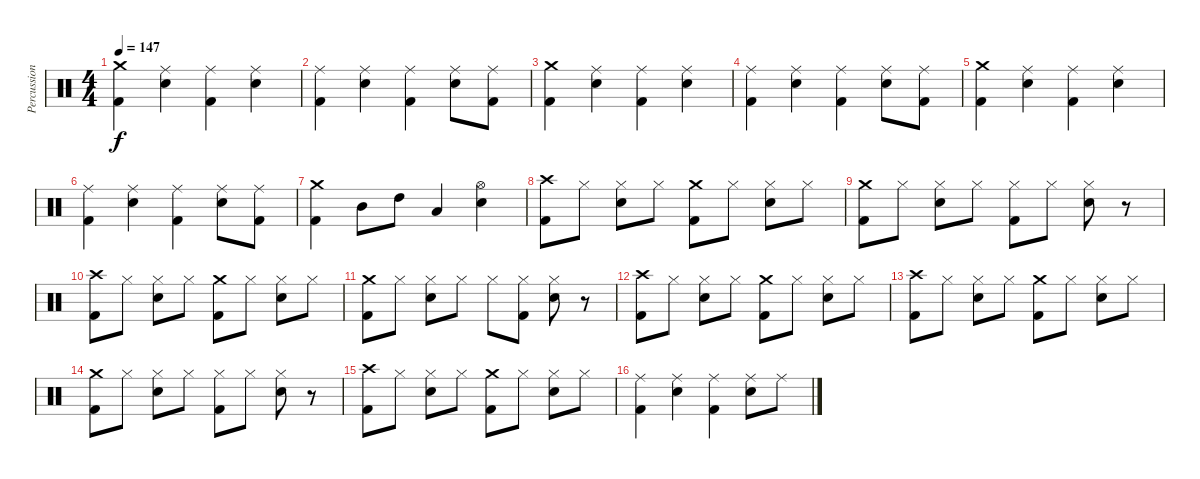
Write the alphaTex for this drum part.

\track ("Percussions" "Percussion") {instrument percussion}
\staff {score}
\articulation defaults
\ts (4 4)
\tempo 147
\clef neutral
\ks c
("Crash medium (hit)" "Kick (hit) 2").4{dy f} ("Ride (middle)" "Electric Snare (hit)").4 ("Ride (middle)" "Kick (hit) 2").4 ("Ride (middle)" "Electric Snare (hit)").4 |
("Ride (middle)" "Kick (hit) 2").4 ("Ride (middle)" "Electric Snare (hit)").4 ("Ride (middle)" "Kick (hit) 2").4 ("Ride (middle)" "Electric Snare (hit)").8 ("Ride (middle)" "Kick (hit) 2").8 |
("Crash medium (hit)" "Kick (hit) 2").4 ("Ride (middle)" "Electric Snare (hit)").4 ("Ride (middle)" "Kick (hit) 2").4 ("Ride (middle)" "Electric Snare (hit)").4 |
("Ride (middle)" "Kick (hit) 2").4 ("Ride (middle)" "Electric Snare (hit)").4 ("Ride (middle)" "Kick (hit) 2").4 ("Ride (middle)" "Electric Snare (hit)").8 ("Ride (middle)" "Kick (hit) 2").8 |
("Crash medium (hit)" "Kick (hit) 2").4 ("Ride (middle)" "Electric Snare (hit)").4 ("Ride (middle)" "Kick (hit) 2").4 ("Ride (middle)" "Electric Snare (hit)").4 |
("Ride (middle)" "Kick (hit) 2").4 ("Ride (middle)" "Electric Snare (hit)").4 ("Ride (middle)" "Kick (hit) 2").4 ("Ride (middle)" "Electric Snare (hit)").8 ("Ride (middle)" "Kick (hit) 2").8 |
("Crash medium (hit)" "Kick (hit) 2").4 "Mid Tom (hit)".8 "High Tom (hit)".8 "Low Tom (hit)".4 ("Hi-Hat (open)" "Electric Snare (hit)").4 |
("Crash high (hit)" "Kick (hit) 2").8 "Hi-Hat (closed)".8 ("Hi-Hat (closed)" "Electric Snare (hit)").8 "Hi-Hat (closed)".8 ("Crash medium (hit)" "Kick (hit) 2").8 "Hi-Hat (closed)".8 ("Hi-Hat (closed)" "Electric Snare (hit)").8 "Hi-Hat (closed)".8 |
("Crash medium (hit)" "Kick (hit) 2").8 "Hi-Hat (closed)".8 ("Hi-Hat (closed)" "Electric Snare (hit)").8 "Hi-Hat (closed)".8 ("Hi-Hat (closed)" "Kick (hit) 2").8 "Hi-Hat (closed)".8 ("Hi-Hat (closed)" "Electric Snare (hit)").8 r.8 |
("Crash high (hit)" "Kick (hit) 2").8 "Hi-Hat (closed)".8 ("Hi-Hat (closed)" "Electric Snare (hit)").8 "Hi-Hat (closed)".8 ("Crash medium (hit)" "Kick (hit) 2").8 "Hi-Hat (closed)".8 ("Hi-Hat (closed)" "Electric Snare (hit)").8 "Hi-Hat (closed)".8 |
("Crash medium (hit)" "Kick (hit) 2").8 "Hi-Hat (closed)".8 ("Hi-Hat (closed)" "Electric Snare (hit)").8 "Hi-Hat (closed)".8 "Hi-Hat (closed)".8 ("Hi-Hat (closed)" "Kick (hit) 2").8 ("Hi-Hat (closed)" "Electric Snare (hit)").8 r.8 |
("Crash high (hit)" "Kick (hit) 2").8 "Hi-Hat (closed)".8 ("Hi-Hat (closed)" "Electric Snare (hit)").8 "Hi-Hat (closed)".8 ("Crash medium (hit)" "Kick (hit) 2").8 "Hi-Hat (closed)".8 ("Hi-Hat (closed)" "Electric Snare (hit)").8 "Hi-Hat (closed)".8 |
("Crash high (hit)" "Kick (hit) 2").8 "Hi-Hat (closed)".8 ("Hi-Hat (closed)" "Electric Snare (hit)").8 "Hi-Hat (closed)".8 ("Crash medium (hit)" "Kick (hit) 2").8 "Hi-Hat (closed)".8 ("Hi-Hat (closed)" "Electric Snare (hit)").8 "Hi-Hat (closed)".8 |
("Crash medium (hit)" "Kick (hit) 2").8 "Hi-Hat (closed)".8 ("Hi-Hat (closed)" "Electric Snare (hit)").8 "Hi-Hat (closed)".8 ("Hi-Hat (closed)" "Kick (hit) 2").8 "Hi-Hat (closed)".8 ("Hi-Hat (closed)" "Electric Snare (hit)").8 r.8 |
("Crash high (hit)" "Kick (hit) 2").8 "Hi-Hat (closed)".8 ("Hi-Hat (closed)" "Electric Snare (hit)").8 "Hi-Hat (closed)".8 ("Crash medium (hit)" "Kick (hit) 2").8 "Hi-Hat (closed)".8 ("Hi-Hat (closed)" "Electric Snare (hit)").8 "Hi-Hat (closed)".8 |
("Ride (middle)" "Kick (hit) 2").4 ("Ride (middle)" "Electric Snare (hit)").4 ("Ride (middle)" "Kick (hit) 2").4 ("Ride (middle)" "Electric Snare (hit)").8 "Ride (middle)".8
